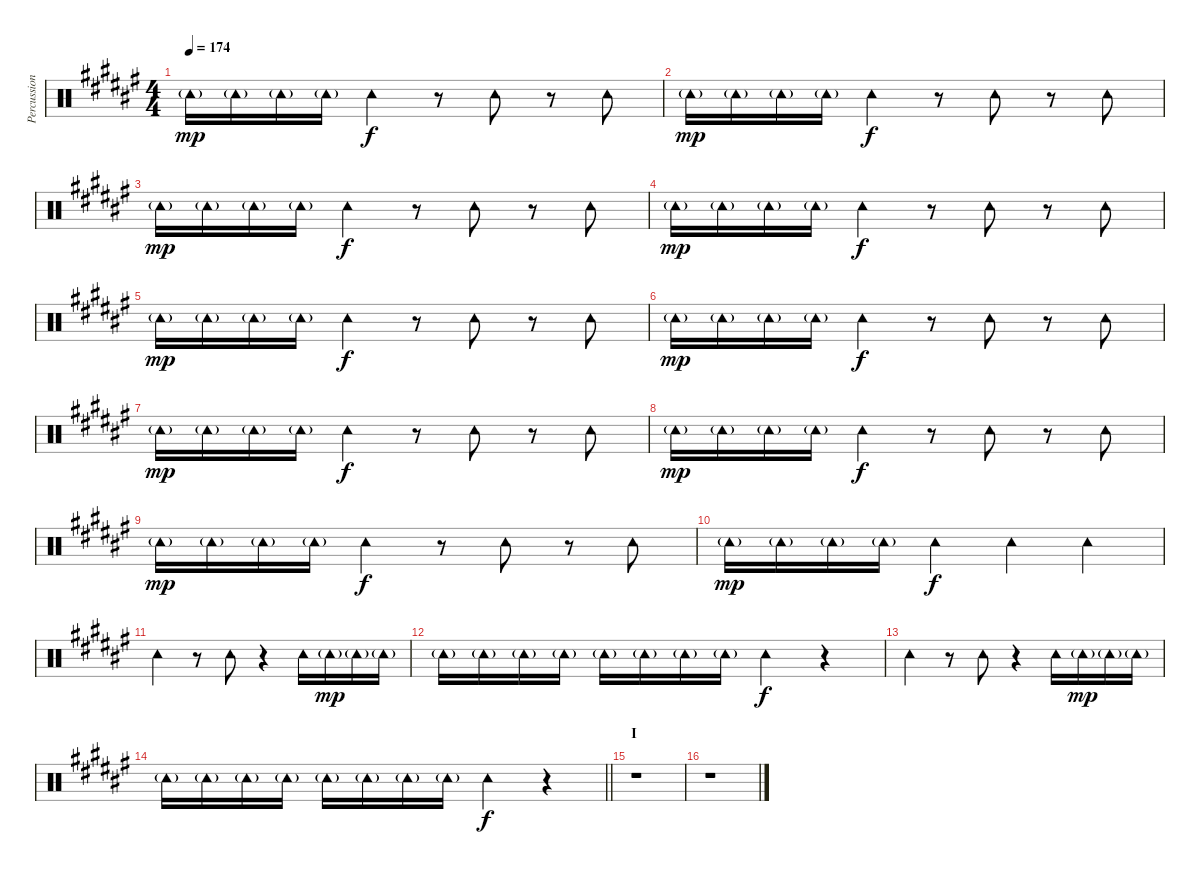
\track ("Percussion II" "Percussion") {instrument percussion}
\staff {score}
\articulation defaults
\ts (4 4)
\tempo 174
\clef neutral
\ks f# "Tambourine (hit)"{g}.16{dy mp} "Tambourine (hit)"{g}.16 "Tambourine (hit)"{g}.16 "Tambourine (hit)"{g}.16 "Tambourine (hit)".4{dy f}
r.8 "Tambourine (hit)".8 r.8 "Tambourine (hit)".8 |
"Tambourine (hit)"{g}.16{dy mp} "Tambourine (hit)"{g}.16 "Tambourine (hit)"{g}.16 "Tambourine (hit)"{g}.16 "Tambourine (hit)".4{dy f} r.8 "Tambourine (hit)".8 r.8 "Tambourine (hit)".8 |
"Tambourine (hit)"{g}.16{dy mp} "Tambourine (hit)"{g}.16 "Tambourine (hit)"{g}.16 "Tambourine (hit)"{g}.16 "Tambourine (hit)".4{dy f} r.8 "Tambourine (hit)".8 r.8 "Tambourine (hit)".8 |
"Tambourine (hit)"{g}.16{dy mp} "Tambourine (hit)"{g}.16 "Tambourine (hit)"{g}.16 "Tambourine (hit)"{g}.16 "Tambourine (hit)".4{dy f} r.8 "Tambourine (hit)".8 r.8 "Tambourine (hit)".8 |
"Tambourine (hit)"{g}.16{dy mp} "Tambourine (hit)"{g}.16 "Tambourine (hit)"{g}.16 "Tambourine (hit)"{g}.16 "Tambourine (hit)".4{dy f} r.8 "Tambourine (hit)".8 r.8 "Tambourine (hit)".8 |
"Tambourine (hit)"{g}.16{dy mp} "Tambourine (hit)"{g}.16 "Tambourine (hit)"{g}.16 "Tambourine (hit)"{g}.16 "Tambourine (hit)".4{dy f} r.8 "Tambourine (hit)".8 r.8 "Tambourine (hit)".8 |
"Tambourine (hit)"{g}.16{dy mp} "Tambourine (hit)"{g}.16 "Tambourine (hit)"{g}.16 "Tambourine (hit)"{g}.16 "Tambourine (hit)".4{dy f} r.8 "Tambourine (hit)".8 r.8 "Tambourine (hit)".8 |
"Tambourine (hit)"{g}.16{dy mp} "Tambourine (hit)"{g}.16 "Tambourine (hit)"{g}.16 "Tambourine (hit)"{g}.16 "Tambourine (hit)".4{dy f} r.8 "Tambourine (hit)".8 r.8 "Tambourine (hit)".8 |
"Tambourine (hit)"{g}.16{dy mp} "Tambourine (hit)"{g}.16 "Tambourine (hit)"{g}.16 "Tambourine (hit)"{g}.16 "Tambourine (hit)".4{dy f} r.8 "Tambourine (hit)".8 r.8 "Tambourine (hit)".8 |
"Tambourine (hit)"{g}.16{dy mp} "Tambourine (hit)"{g}.16 "Tambourine (hit)"{g}.16 "Tambourine (hit)"{g}.16 "Tambourine (hit)".4{dy f} "Tambourine (hit)".4 "Tambourine (hit)".4 |
"Tambourine (hit)".4 r.8 "Tambourine (hit)".8 r.4 "Tambourine (hit)".16 "Tambourine (hit)"{g}.16{dy mp} "Tambourine (hit)"{g}.16 "Tambourine (hit)"{g}.16 |
"Tambourine (hit)"{g}.16 "Tambourine (hit)"{g}.16 "Tambourine (hit)"{g}.16 "Tambourine (hit)"{g}.16 "Tambourine (hit)"{g}.16 "Tambourine (hit)"{g}.16 "Tambourine (hit)"{g}.16 "Tambourine (hit)"{g}.16 "Tambourine (hit)".4{dy f} r.4 |
"Tambourine (hit)".4 r.8 "Tambourine (hit)".8 r.4 "Tambourine (hit)".16 "Tambourine (hit)"{g}.16{dy mp} "Tambourine (hit)"{g}.16 "Tambourine (hit)"{g}.16 |
\barLineRight lightlight "Tambourine (hit)"{g}.16 "Tambourine (hit)"{g}.16 "Tambourine (hit)"{g}.16 "Tambourine (hit)"{g}.16 "Tambourine (hit)"{g}.16 "Tambourine (hit)"{g}.16 "Tambourine (hit)"{g}.16 "Tambourine (hit)"{g}.16 "Tambourine (hit)".4{dy f}
r.4 |
\section ("" "I")
r.1 |
r.1
